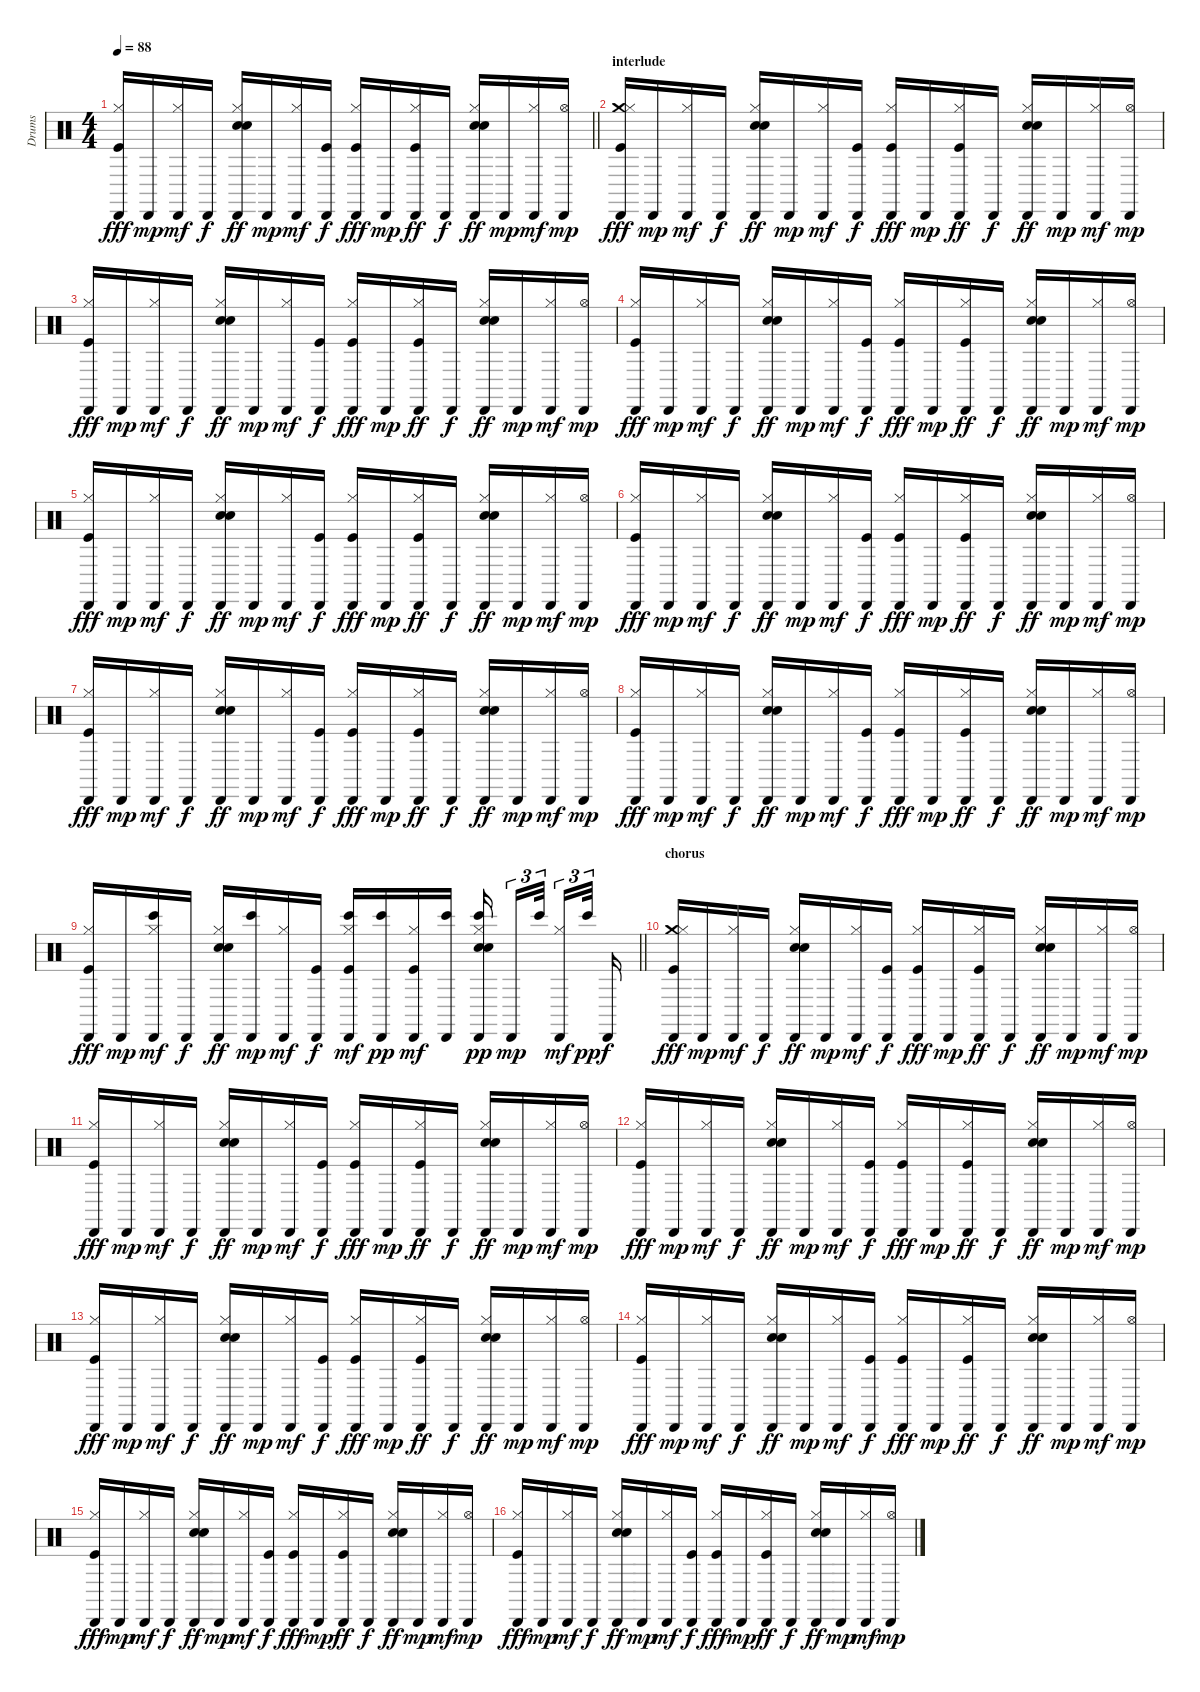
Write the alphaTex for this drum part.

\track ("Drums" "Drums") {instrument percussion}
\staff {score}
\articulation defaults
\ts (4 4)
\tempo 88
\clef neutral
\barLineRight lightlight
\ks c
("Cabasa (hit)" "Hi-Hat (closed)" "Kick (hit)").16{dy fff} "Cabasa (hit)".16{dy mp} ("Cabasa (hit)" "Hi-Hat (closed)").16{dy mf} "Cabasa (hit)".16{dy f} ("Cabasa (hit)" "Electric Snare (hit)" "Snare (hit) 2" "Hi-Hat (closed)").16{dy ff} "Cabasa (hit)".16{dy mp} ("Cabasa (hit)" "Hi-Hat (closed)").16{dy mf} ("Cabasa (hit)" "Kick (hit)").16{dy f} ("Cabasa (hit)" "Hi-Hat (closed)" "Kick (hit)").16{dy fff} "Cabasa (hit)".16{dy mp} ("Cabasa (hit)" "Hi-Hat (closed)" "Kick (hit)").16{dy ff} "Cabasa (hit)".16{dy f} ("Cabasa (hit)" "Electric Snare (hit)" "Snare (hit) 2" "Hi-Hat (closed)").16{dy ff} "Cabasa (hit)".16{dy mp} ("Cabasa (hit)" "Hi-Hat (closed)").16{dy mf} ("Cabasa (hit)" "Hi-Hat (open)").16{dy mp} |
\section ("" "interlude")
("Cabasa (hit)" "Crash medium (hit)" "Hi-Hat (closed)" "Kick (hit)").16{dy fff} "Cabasa (hit)".16{dy mp} ("Cabasa (hit)" "Hi-Hat (closed)").16{dy mf} "Cabasa (hit)".16{dy f} ("Cabasa (hit)" "Electric Snare (hit)" "Snare (hit) 2" "Hi-Hat (closed)").16{dy ff} "Cabasa (hit)".16{dy mp} ("Cabasa (hit)" "Hi-Hat (closed)").16{dy mf} ("Cabasa (hit)" "Kick (hit)").16{dy f} ("Cabasa (hit)" "Hi-Hat (closed)" "Kick (hit)").16{dy fff} "Cabasa (hit)".16{dy mp} ("Cabasa (hit)" "Hi-Hat (closed)" "Kick (hit)").16{dy ff} "Cabasa (hit)".16{dy f} ("Cabasa (hit)" "Electric Snare (hit)" "Snare (hit) 2" "Hi-Hat (closed)").16{dy ff} "Cabasa (hit)".16{dy mp} ("Cabasa (hit)" "Hi-Hat (closed)").16{dy mf} ("Cabasa (hit)" "Hi-Hat (open)").16{dy mp} |
("Cabasa (hit)" "Hi-Hat (closed)" "Kick (hit)").16{dy fff} "Cabasa (hit)".16{dy mp} ("Cabasa (hit)" "Hi-Hat (closed)").16{dy mf} "Cabasa (hit)".16{dy f} ("Cabasa (hit)" "Electric Snare (hit)" "Snare (hit) 2" "Hi-Hat (closed)").16{dy ff} "Cabasa (hit)".16{dy mp} ("Cabasa (hit)" "Hi-Hat (closed)").16{dy mf} ("Cabasa (hit)" "Kick (hit)").16{dy f} ("Cabasa (hit)" "Hi-Hat (closed)" "Kick (hit)").16{dy fff} "Cabasa (hit)".16{dy mp} ("Cabasa (hit)" "Hi-Hat (closed)" "Kick (hit)").16{dy ff} "Cabasa (hit)".16{dy f} ("Cabasa (hit)" "Electric Snare (hit)" "Snare (hit) 2" "Hi-Hat (closed)").16{dy ff} "Cabasa (hit)".16{dy mp} ("Cabasa (hit)" "Hi-Hat (closed)").16{dy mf} ("Cabasa (hit)" "Hi-Hat (open)").16{dy mp} |
("Cabasa (hit)" "Hi-Hat (closed)" "Kick (hit)").16{dy fff} "Cabasa (hit)".16{dy mp} ("Cabasa (hit)" "Hi-Hat (closed)").16{dy mf} "Cabasa (hit)".16{dy f} ("Cabasa (hit)" "Electric Snare (hit)" "Snare (hit) 2" "Hi-Hat (closed)").16{dy ff} "Cabasa (hit)".16{dy mp} ("Cabasa (hit)" "Hi-Hat (closed)").16{dy mf} ("Cabasa (hit)" "Kick (hit)").16{dy f} ("Cabasa (hit)" "Hi-Hat (closed)" "Kick (hit)").16{dy fff} "Cabasa (hit)".16{dy mp} ("Cabasa (hit)" "Hi-Hat (closed)" "Kick (hit)").16{dy ff} "Cabasa (hit)".16{dy f} ("Cabasa (hit)" "Electric Snare (hit)" "Snare (hit) 2" "Hi-Hat (closed)").16{dy ff} "Cabasa (hit)".16{dy mp} ("Cabasa (hit)" "Hi-Hat (closed)").16{dy mf} ("Cabasa (hit)" "Hi-Hat (open)").16{dy mp} |
("Cabasa (hit)" "Hi-Hat (closed)" "Kick (hit)").16{dy fff} "Cabasa (hit)".16{dy mp} ("Cabasa (hit)" "Hi-Hat (closed)").16{dy mf} "Cabasa (hit)".16{dy f} ("Cabasa (hit)" "Electric Snare (hit)" "Snare (hit) 2" "Hi-Hat (closed)").16{dy ff} "Cabasa (hit)".16{dy mp} ("Cabasa (hit)" "Hi-Hat (closed)").16{dy mf} ("Cabasa (hit)" "Kick (hit)").16{dy f} ("Cabasa (hit)" "Hi-Hat (closed)" "Kick (hit)").16{dy fff} "Cabasa (hit)".16{dy mp} ("Cabasa (hit)" "Hi-Hat (closed)" "Kick (hit)").16{dy ff} "Cabasa (hit)".16{dy f} ("Cabasa (hit)" "Electric Snare (hit)" "Snare (hit) 2" "Hi-Hat (closed)").16{dy ff} "Cabasa (hit)".16{dy mp} ("Cabasa (hit)" "Hi-Hat (closed)").16{dy mf} ("Cabasa (hit)" "Hi-Hat (open)").16{dy mp} |
("Cabasa (hit)" "Hi-Hat (closed)" "Kick (hit)").16{dy fff} "Cabasa (hit)".16{dy mp} ("Cabasa (hit)" "Hi-Hat (closed)").16{dy mf} "Cabasa (hit)".16{dy f} ("Cabasa (hit)" "Electric Snare (hit)" "Snare (hit) 2" "Hi-Hat (closed)").16{dy ff} "Cabasa (hit)".16{dy mp} ("Cabasa (hit)" "Hi-Hat (closed)").16{dy mf} ("Cabasa (hit)" "Kick (hit)").16{dy f} ("Cabasa (hit)" "Hi-Hat (closed)" "Kick (hit)").16{dy fff} "Cabasa (hit)".16{dy mp} ("Cabasa (hit)" "Hi-Hat (closed)" "Kick (hit)").16{dy ff} "Cabasa (hit)".16{dy f} ("Cabasa (hit)" "Electric Snare (hit)" "Snare (hit) 2" "Hi-Hat (closed)").16{dy ff} "Cabasa (hit)".16{dy mp} ("Cabasa (hit)" "Hi-Hat (closed)").16{dy mf} ("Cabasa (hit)" "Hi-Hat (open)").16{dy mp} |
("Cabasa (hit)" "Hi-Hat (closed)" "Kick (hit)").16{dy fff} "Cabasa (hit)".16{dy mp} ("Cabasa (hit)" "Hi-Hat (closed)").16{dy mf} "Cabasa (hit)".16{dy f} ("Cabasa (hit)" "Electric Snare (hit)" "Snare (hit) 2" "Hi-Hat (closed)").16{dy ff} "Cabasa (hit)".16{dy mp} ("Cabasa (hit)" "Hi-Hat (closed)").16{dy mf} ("Cabasa (hit)" "Kick (hit)").16{dy f} ("Cabasa (hit)" "Hi-Hat (closed)" "Kick (hit)").16{dy fff} "Cabasa (hit)".16{dy mp} ("Cabasa (hit)" "Hi-Hat (closed)" "Kick (hit)").16{dy ff} "Cabasa (hit)".16{dy f} ("Cabasa (hit)" "Electric Snare (hit)" "Snare (hit) 2" "Hi-Hat (closed)").16{dy ff} "Cabasa (hit)".16{dy mp} ("Cabasa (hit)" "Hi-Hat (closed)").16{dy mf} ("Cabasa (hit)" "Hi-Hat (open)").16{dy mp} |
("Cabasa (hit)" "Hi-Hat (closed)" "Kick (hit)").16{dy fff} "Cabasa (hit)".16{dy mp} ("Cabasa (hit)" "Hi-Hat (closed)").16{dy mf} "Cabasa (hit)".16{dy f} ("Cabasa (hit)" "Electric Snare (hit)" "Snare (hit) 2" "Hi-Hat (closed)").16{dy ff} "Cabasa (hit)".16{dy mp} ("Cabasa (hit)" "Hi-Hat (closed)").16{dy mf} ("Cabasa (hit)" "Kick (hit)").16{dy f} ("Cabasa (hit)" "Hi-Hat (closed)" "Kick (hit)").16{dy fff} "Cabasa (hit)".16{dy mp} ("Cabasa (hit)" "Hi-Hat (closed)" "Kick (hit)").16{dy ff} "Cabasa (hit)".16{dy f} ("Cabasa (hit)" "Electric Snare (hit)" "Snare (hit) 2" "Hi-Hat (closed)").16{dy ff} "Cabasa (hit)".16{dy mp} ("Cabasa (hit)" "Hi-Hat (closed)").16{dy mf} ("Cabasa (hit)" "Hi-Hat (open)").16{dy mp} |
\barLineRight lightlight
("Kick (hit)" "Cabasa (hit)" "Hi-Hat (closed)").16{dy fff} "Cabasa (hit)".16{dy mp} ("Bongo High (hit)" "Cabasa (hit)" "Hi-Hat (closed)").16{dy mf} "Cabasa (hit)".16{dy f} ("Electric Snare (hit)" "Cabasa (hit)" "Snare (hit) 2" "Hi-Hat (closed)").16{dy ff} ("Cabasa (hit)" "Bongo High (hit)").16{dy mp} ("Cabasa (hit)" "Hi-Hat (closed)").16{dy mf} ("Kick (hit)" "Cabasa (hit)").16{dy f} ("Kick (hit)" "Cabasa (hit)" "Hi-Hat (closed)" "Bongo High (hit)").16{dy mf} ("Cabasa (hit)" "Bongo High (hit)").16{dy pp} ("Kick (hit)" "Cabasa (hit)" "Hi-Hat (closed)").16{dy mf} ("Cabasa (hit)" "Bongo High (hit)").16 ("Electric Snare (hit)" "Snare (hit) 2" "Cabasa (hit)" "Hi-Hat (closed)" "Bongo High (hit)").16{dy pp} "Cabasa (hit)".16{tu (3 2) dy mp} "Bongo High (hit)".32{tu (3 2)} ("Hi-Hat (closed)" "Cabasa (hit)").16{tu (3 2) dy mf} "Bongo High (hit)".32{tu (3 2) dy pp} "Cabasa (hit)".16{dy f} |
\section ("" "chorus")
("Cabasa (hit)" "Crash medium (hit)" "Hi-Hat (closed)" "Kick (hit)").16{dy fff} "Cabasa (hit)".16{dy mp} ("Cabasa (hit)" "Hi-Hat (closed)").16{dy mf} "Cabasa (hit)".16{dy f} ("Cabasa (hit)" "Electric Snare (hit)" "Snare (hit) 2" "Hi-Hat (closed)").16{dy ff} "Cabasa (hit)".16{dy mp} ("Cabasa (hit)" "Hi-Hat (closed)").16{dy mf} ("Cabasa (hit)" "Kick (hit)").16{dy f} ("Cabasa (hit)" "Hi-Hat (closed)" "Kick (hit)").16{dy fff} "Cabasa (hit)".16{dy mp} ("Cabasa (hit)" "Hi-Hat (closed)" "Kick (hit)").16{dy ff} "Cabasa (hit)".16{dy f} ("Cabasa (hit)" "Electric Snare (hit)" "Snare (hit) 2" "Hi-Hat (closed)").16{dy ff} "Cabasa (hit)".16{dy mp} ("Cabasa (hit)" "Hi-Hat (closed)").16{dy mf} ("Cabasa (hit)" "Hi-Hat (open)").16{dy mp} |
("Cabasa (hit)" "Hi-Hat (closed)" "Kick (hit)").16{dy fff} "Cabasa (hit)".16{dy mp} ("Cabasa (hit)" "Hi-Hat (closed)").16{dy mf} "Cabasa (hit)".16{dy f} ("Cabasa (hit)" "Electric Snare (hit)" "Snare (hit) 2" "Hi-Hat (closed)").16{dy ff} "Cabasa (hit)".16{dy mp} ("Cabasa (hit)" "Hi-Hat (closed)").16{dy mf} ("Cabasa (hit)" "Kick (hit)").16{dy f} ("Cabasa (hit)" "Hi-Hat (closed)" "Kick (hit)").16{dy fff} "Cabasa (hit)".16{dy mp} ("Cabasa (hit)" "Hi-Hat (closed)" "Kick (hit)").16{dy ff} "Cabasa (hit)".16{dy f} ("Cabasa (hit)" "Electric Snare (hit)" "Snare (hit) 2" "Hi-Hat (closed)").16{dy ff} "Cabasa (hit)".16{dy mp} ("Cabasa (hit)" "Hi-Hat (closed)").16{dy mf} ("Cabasa (hit)" "Hi-Hat (open)").16{dy mp} |
("Cabasa (hit)" "Hi-Hat (closed)" "Kick (hit)").16{dy fff} "Cabasa (hit)".16{dy mp} ("Cabasa (hit)" "Hi-Hat (closed)").16{dy mf} "Cabasa (hit)".16{dy f} ("Cabasa (hit)" "Electric Snare (hit)" "Snare (hit) 2" "Hi-Hat (closed)").16{dy ff} "Cabasa (hit)".16{dy mp} ("Cabasa (hit)" "Hi-Hat (closed)").16{dy mf} ("Cabasa (hit)" "Kick (hit)").16{dy f} ("Cabasa (hit)" "Hi-Hat (closed)" "Kick (hit)").16{dy fff} "Cabasa (hit)".16{dy mp} ("Cabasa (hit)" "Hi-Hat (closed)" "Kick (hit)").16{dy ff} "Cabasa (hit)".16{dy f} ("Cabasa (hit)" "Electric Snare (hit)" "Snare (hit) 2" "Hi-Hat (closed)").16{dy ff} "Cabasa (hit)".16{dy mp} ("Cabasa (hit)" "Hi-Hat (closed)").16{dy mf} ("Cabasa (hit)" "Hi-Hat (open)").16{dy mp} |
("Cabasa (hit)" "Hi-Hat (closed)" "Kick (hit)").16{dy fff} "Cabasa (hit)".16{dy mp} ("Cabasa (hit)" "Hi-Hat (closed)").16{dy mf} "Cabasa (hit)".16{dy f} ("Cabasa (hit)" "Electric Snare (hit)" "Snare (hit) 2" "Hi-Hat (closed)").16{dy ff} "Cabasa (hit)".16{dy mp} ("Cabasa (hit)" "Hi-Hat (closed)").16{dy mf} ("Cabasa (hit)" "Kick (hit)").16{dy f} ("Cabasa (hit)" "Hi-Hat (closed)" "Kick (hit)").16{dy fff} "Cabasa (hit)".16{dy mp} ("Cabasa (hit)" "Hi-Hat (closed)" "Kick (hit)").16{dy ff} "Cabasa (hit)".16{dy f} ("Cabasa (hit)" "Electric Snare (hit)" "Snare (hit) 2" "Hi-Hat (closed)").16{dy ff} "Cabasa (hit)".16{dy mp} ("Cabasa (hit)" "Hi-Hat (closed)").16{dy mf} ("Cabasa (hit)" "Hi-Hat (open)").16{dy mp} |
("Cabasa (hit)" "Hi-Hat (closed)" "Kick (hit)").16{dy fff} "Cabasa (hit)".16{dy mp} ("Cabasa (hit)" "Hi-Hat (closed)").16{dy mf} "Cabasa (hit)".16{dy f} ("Cabasa (hit)" "Electric Snare (hit)" "Snare (hit) 2" "Hi-Hat (closed)").16{dy ff} "Cabasa (hit)".16{dy mp} ("Cabasa (hit)" "Hi-Hat (closed)").16{dy mf} ("Cabasa (hit)" "Kick (hit)").16{dy f} ("Cabasa (hit)" "Hi-Hat (closed)" "Kick (hit)").16{dy fff} "Cabasa (hit)".16{dy mp} ("Cabasa (hit)" "Hi-Hat (closed)" "Kick (hit)").16{dy ff} "Cabasa (hit)".16{dy f} ("Cabasa (hit)" "Electric Snare (hit)" "Snare (hit) 2" "Hi-Hat (closed)").16{dy ff} "Cabasa (hit)".16{dy mp} ("Cabasa (hit)" "Hi-Hat (closed)").16{dy mf} ("Cabasa (hit)" "Hi-Hat (open)").16{dy mp} |
("Cabasa (hit)" "Hi-Hat (closed)" "Kick (hit)").16{dy fff} "Cabasa (hit)".16{dy mp} ("Cabasa (hit)" "Hi-Hat (closed)").16{dy mf} "Cabasa (hit)".16{dy f} ("Cabasa (hit)" "Electric Snare (hit)" "Snare (hit) 2" "Hi-Hat (closed)").16{dy ff} "Cabasa (hit)".16{dy mp} ("Cabasa (hit)" "Hi-Hat (closed)").16{dy mf} ("Cabasa (hit)" "Kick (hit)").16{dy f} ("Cabasa (hit)" "Hi-Hat (closed)" "Kick (hit)").16{dy fff} "Cabasa (hit)".16{dy mp} ("Cabasa (hit)" "Hi-Hat (closed)" "Kick (hit)").16{dy ff} "Cabasa (hit)".16{dy f} ("Cabasa (hit)" "Electric Snare (hit)" "Snare (hit) 2" "Hi-Hat (closed)").16{dy ff} "Cabasa (hit)".16{dy mp} ("Cabasa (hit)" "Hi-Hat (closed)").16{dy mf} ("Cabasa (hit)" "Hi-Hat (open)").16{dy mp} |
("Cabasa (hit)" "Hi-Hat (closed)" "Kick (hit)").16{dy fff} "Cabasa (hit)".16{dy mp} ("Cabasa (hit)" "Hi-Hat (closed)").16{dy mf} "Cabasa (hit)".16{dy f} ("Cabasa (hit)" "Electric Snare (hit)" "Snare (hit) 2" "Hi-Hat (closed)").16{dy ff} "Cabasa (hit)".16{dy mp} ("Cabasa (hit)" "Hi-Hat (closed)").16{dy mf} ("Cabasa (hit)" "Kick (hit)").16{dy f} ("Cabasa (hit)" "Hi-Hat (closed)" "Kick (hit)").16{dy fff} "Cabasa (hit)".16{dy mp} ("Cabasa (hit)" "Hi-Hat (closed)" "Kick (hit)").16{dy ff} "Cabasa (hit)".16{dy f} ("Cabasa (hit)" "Electric Snare (hit)" "Snare (hit) 2" "Hi-Hat (closed)").16{dy ff} "Cabasa (hit)".16{dy mp} ("Cabasa (hit)" "Hi-Hat (closed)").16{dy mf} ("Cabasa (hit)" "Hi-Hat (open)").16{dy mp}
